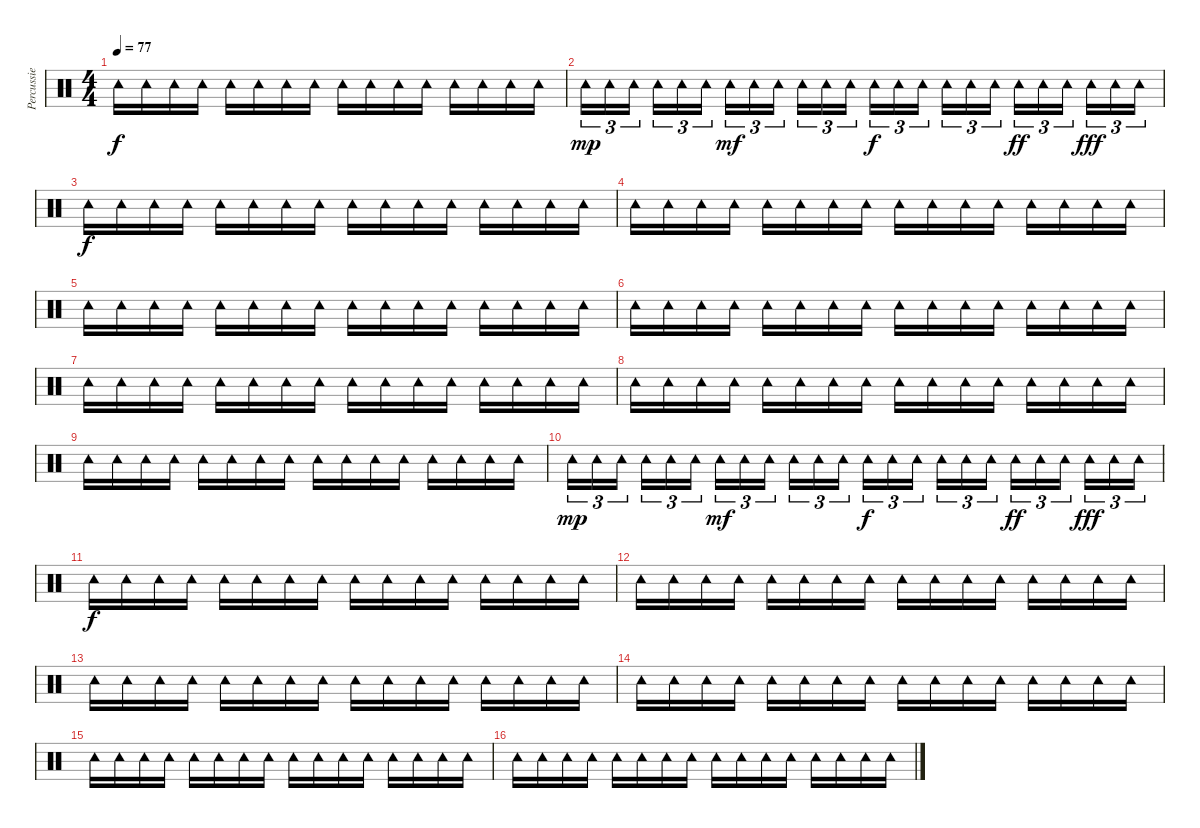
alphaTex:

\track ("Percussie" "Percussie") {instrument percussion}
\staff {score}
\articulation defaults
\ts (4 4)
\tempo 77
\clef neutral
\ks c "Tambourine (hit)".16{dy f} "Tambourine (hit)".16 "Tambourine (hit)".16 "Tambourine (hit)".16 "Tambourine (hit)".16 "Tambourine (hit)".16 "Tambourine (hit)".16 "Tambourine (hit)".16 "Tambourine (hit)".16 "Tambourine (hit)".16 "Tambourine (hit)".16 "Tambourine (hit)".16 "Tambourine (hit)".16 "Tambourine (hit)".16 "Tambourine (hit)".16 "Tambourine (hit)".16
|
"Tambourine (hit)".16{tu (3 2) dy mp} "Tambourine (hit)".16{tu (3 2)} "Tambourine (hit)".16{tu (3 2) beam splitsecondary} "Tambourine (hit)".16{tu (3 2)} "Tambourine (hit)".16{tu (3 2)} "Tambourine (hit)".16{tu (3 2)} "Tambourine (hit)".16{tu (3 2) dy mf} "Tambourine (hit)".16{tu (3 2)} "Tambourine (hit)".16{tu (3 2) beam splitsecondary} "Tambourine (hit)".16{tu (3 2)} "Tambourine (hit)".16{tu (3 2)} "Tambourine (hit)".16{tu (3 2)} "Tambourine (hit)".16{tu (3 2) dy f} "Tambourine (hit)".16{tu (3 2)} "Tambourine (hit)".16{tu (3 2) beam splitsecondary} "Tambourine (hit)".16{tu (3 2)} "Tambourine (hit)".16{tu (3 2)} "Tambourine (hit)".16{tu (3 2)} "Tambourine (hit)".16{tu (3 2) dy ff} "Tambourine (hit)".16{tu (3 2)} "Tambourine (hit)".16{tu (3 2) beam splitsecondary} "Tambourine (hit)".16{tu (3 2) dy fff} "Tambourine (hit)".16{tu (3 2)} "Tambourine (hit)".16{tu (3 2)} |
"Tambourine (hit)".16{dy f} "Tambourine (hit)".16 "Tambourine (hit)".16 "Tambourine (hit)".16 "Tambourine (hit)".16 "Tambourine (hit)".16 "Tambourine (hit)".16 "Tambourine (hit)".16 "Tambourine (hit)".16 "Tambourine (hit)".16 "Tambourine (hit)".16 "Tambourine (hit)".16 "Tambourine (hit)".16 "Tambourine (hit)".16 "Tambourine (hit)".16 "Tambourine (hit)".16 |
"Tambourine (hit)".16 "Tambourine (hit)".16 "Tambourine (hit)".16 "Tambourine (hit)".16 "Tambourine (hit)".16 "Tambourine (hit)".16 "Tambourine (hit)".16 "Tambourine (hit)".16 "Tambourine (hit)".16 "Tambourine (hit)".16 "Tambourine (hit)".16 "Tambourine (hit)".16 "Tambourine (hit)".16 "Tambourine (hit)".16 "Tambourine (hit)".16 "Tambourine (hit)".16 |
"Tambourine (hit)".16 "Tambourine (hit)".16 "Tambourine (hit)".16 "Tambourine (hit)".16 "Tambourine (hit)".16 "Tambourine (hit)".16 "Tambourine (hit)".16 "Tambourine (hit)".16 "Tambourine (hit)".16 "Tambourine (hit)".16 "Tambourine (hit)".16 "Tambourine (hit)".16 "Tambourine (hit)".16 "Tambourine (hit)".16 "Tambourine (hit)".16 "Tambourine (hit)".16 |
"Tambourine (hit)".16 "Tambourine (hit)".16 "Tambourine (hit)".16 "Tambourine (hit)".16 "Tambourine (hit)".16 "Tambourine (hit)".16 "Tambourine (hit)".16 "Tambourine (hit)".16 "Tambourine (hit)".16 "Tambourine (hit)".16 "Tambourine (hit)".16 "Tambourine (hit)".16 "Tambourine (hit)".16 "Tambourine (hit)".16 "Tambourine (hit)".16 "Tambourine (hit)".16 |
"Tambourine (hit)".16 "Tambourine (hit)".16 "Tambourine (hit)".16 "Tambourine (hit)".16 "Tambourine (hit)".16 "Tambourine (hit)".16 "Tambourine (hit)".16 "Tambourine (hit)".16 "Tambourine (hit)".16 "Tambourine (hit)".16 "Tambourine (hit)".16 "Tambourine (hit)".16 "Tambourine (hit)".16 "Tambourine (hit)".16 "Tambourine (hit)".16 "Tambourine (hit)".16 |
"Tambourine (hit)".16 "Tambourine (hit)".16 "Tambourine (hit)".16 "Tambourine (hit)".16 "Tambourine (hit)".16 "Tambourine (hit)".16 "Tambourine (hit)".16 "Tambourine (hit)".16 "Tambourine (hit)".16 "Tambourine (hit)".16 "Tambourine (hit)".16 "Tambourine (hit)".16 "Tambourine (hit)".16 "Tambourine (hit)".16 "Tambourine (hit)".16 "Tambourine (hit)".16 |
"Tambourine (hit)".16 "Tambourine (hit)".16 "Tambourine (hit)".16 "Tambourine (hit)".16 "Tambourine (hit)".16 "Tambourine (hit)".16 "Tambourine (hit)".16 "Tambourine (hit)".16 "Tambourine (hit)".16 "Tambourine (hit)".16 "Tambourine (hit)".16 "Tambourine (hit)".16 "Tambourine (hit)".16 "Tambourine (hit)".16 "Tambourine (hit)".16 "Tambourine (hit)".16 |
"Tambourine (hit)".16{tu (3 2) dy mp} "Tambourine (hit)".16{tu (3 2)} "Tambourine (hit)".16{tu (3 2) beam splitsecondary} "Tambourine (hit)".16{tu (3 2)} "Tambourine (hit)".16{tu (3 2)} "Tambourine (hit)".16{tu (3 2)} "Tambourine (hit)".16{tu (3 2) dy mf} "Tambourine (hit)".16{tu (3 2)} "Tambourine (hit)".16{tu (3 2) beam splitsecondary} "Tambourine (hit)".16{tu (3 2)} "Tambourine (hit)".16{tu (3 2)} "Tambourine (hit)".16{tu (3 2)} "Tambourine (hit)".16{tu (3 2) dy f} "Tambourine (hit)".16{tu (3 2)} "Tambourine (hit)".16{tu (3 2) beam splitsecondary} "Tambourine (hit)".16{tu (3 2)} "Tambourine (hit)".16{tu (3 2)} "Tambourine (hit)".16{tu (3 2)} "Tambourine (hit)".16{tu (3 2) dy ff} "Tambourine (hit)".16{tu (3 2)} "Tambourine (hit)".16{tu (3 2) beam splitsecondary} "Tambourine (hit)".16{tu (3 2) dy fff} "Tambourine (hit)".16{tu (3 2)} "Tambourine (hit)".16{tu (3 2)} |
"Tambourine (hit)".16{dy f} "Tambourine (hit)".16 "Tambourine (hit)".16 "Tambourine (hit)".16 "Tambourine (hit)".16 "Tambourine (hit)".16 "Tambourine (hit)".16 "Tambourine (hit)".16 "Tambourine (hit)".16 "Tambourine (hit)".16 "Tambourine (hit)".16 "Tambourine (hit)".16 "Tambourine (hit)".16 "Tambourine (hit)".16 "Tambourine (hit)".16 "Tambourine (hit)".16 |
"Tambourine (hit)".16 "Tambourine (hit)".16 "Tambourine (hit)".16 "Tambourine (hit)".16 "Tambourine (hit)".16 "Tambourine (hit)".16 "Tambourine (hit)".16 "Tambourine (hit)".16 "Tambourine (hit)".16 "Tambourine (hit)".16 "Tambourine (hit)".16 "Tambourine (hit)".16 "Tambourine (hit)".16 "Tambourine (hit)".16 "Tambourine (hit)".16 "Tambourine (hit)".16 |
"Tambourine (hit)".16 "Tambourine (hit)".16 "Tambourine (hit)".16 "Tambourine (hit)".16 "Tambourine (hit)".16 "Tambourine (hit)".16 "Tambourine (hit)".16 "Tambourine (hit)".16 "Tambourine (hit)".16 "Tambourine (hit)".16 "Tambourine (hit)".16 "Tambourine (hit)".16 "Tambourine (hit)".16 "Tambourine (hit)".16 "Tambourine (hit)".16 "Tambourine (hit)".16 |
"Tambourine (hit)".16 "Tambourine (hit)".16 "Tambourine (hit)".16 "Tambourine (hit)".16 "Tambourine (hit)".16 "Tambourine (hit)".16 "Tambourine (hit)".16 "Tambourine (hit)".16 "Tambourine (hit)".16 "Tambourine (hit)".16 "Tambourine (hit)".16 "Tambourine (hit)".16 "Tambourine (hit)".16 "Tambourine (hit)".16 "Tambourine (hit)".16 "Tambourine (hit)".16 |
"Tambourine (hit)".16 "Tambourine (hit)".16 "Tambourine (hit)".16 "Tambourine (hit)".16 "Tambourine (hit)".16 "Tambourine (hit)".16 "Tambourine (hit)".16 "Tambourine (hit)".16 "Tambourine (hit)".16 "Tambourine (hit)".16 "Tambourine (hit)".16 "Tambourine (hit)".16 "Tambourine (hit)".16 "Tambourine (hit)".16 "Tambourine (hit)".16 "Tambourine (hit)".16 |
"Tambourine (hit)".16 "Tambourine (hit)".16 "Tambourine (hit)".16 "Tambourine (hit)".16 "Tambourine (hit)".16 "Tambourine (hit)".16 "Tambourine (hit)".16 "Tambourine (hit)".16 "Tambourine (hit)".16 "Tambourine (hit)".16 "Tambourine (hit)".16 "Tambourine (hit)".16 "Tambourine (hit)".16 "Tambourine (hit)".16 "Tambourine (hit)".16 "Tambourine (hit)".16
